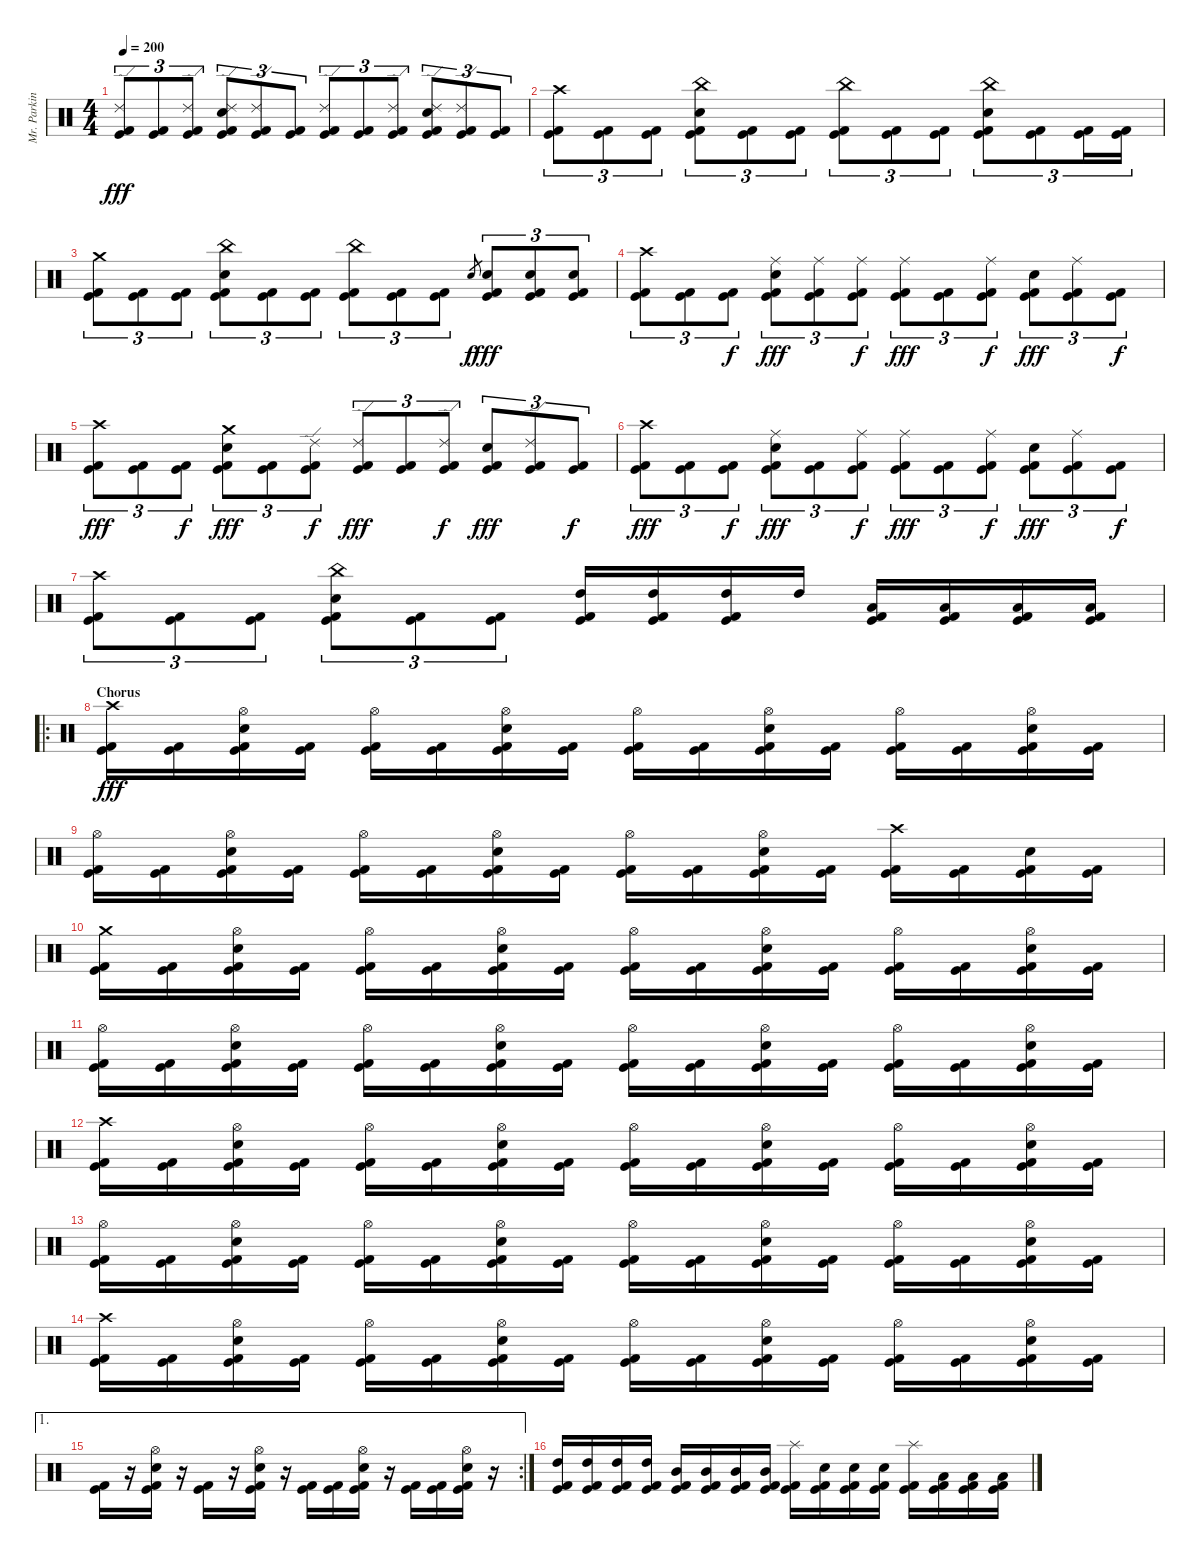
\track ("Mr. Parkinson" "Mr. Parkin") {instrument percussion}
\staff {score}
\articulation defaults
\ts (4 4)
\tempo 200
\clef neutral
\ks c
("Ride (edge) 2" "Kick (hit)" "Kick (hit) 2").8{tu (3 2) dy fff} ("Kick (hit)" "Kick (hit) 2").8{tu (3 2)} ("Ride (edge) 2" "Kick (hit)" "Kick (hit) 2").8{tu (3 2)} ("Ride (edge) 2" "Electric Snare (hit)" "Kick (hit)" "Kick (hit) 2").8{tu (3 2)} ("Ride (edge) 2" "Kick (hit)" "Kick (hit) 2").8{tu (3 2)} ("Kick (hit)" "Kick (hit) 2").8{tu (3 2)} ("Ride (edge) 2" "Kick (hit)" "Kick (hit) 2").8{tu (3 2)} ("Kick (hit)" "Kick (hit) 2").8{tu (3 2)} ("Ride (edge) 2" "Kick (hit)" "Kick (hit) 2").8{tu (3 2)} ("Ride (edge) 2" "Electric Snare (hit)" "Kick (hit)" "Kick (hit) 2").8{tu (3 2)} ("Ride (edge) 2" "Kick (hit)" "Kick (hit) 2").8{tu (3 2)} ("Kick (hit)" "Kick (hit) 2").8{tu (3 2)} |
("Crash high (hit)" "Kick (hit)" "Kick (hit) 2").8{tu (3 2)} ("Kick (hit)" "Kick (hit) 2").8{tu (3 2)} ("Kick (hit)" "Kick (hit) 2").8{tu (3 2)} ("China (hit)" "Electric Snare (hit)" "Kick (hit)" "Kick (hit) 2").8{tu (3 2)} ("Kick (hit)" "Kick (hit) 2").8{tu (3 2)} ("Kick (hit)" "Kick (hit) 2").8{tu (3 2)} ("China (hit)" "Kick (hit)" "Kick (hit) 2").8{tu (3 2)} ("Kick (hit)" "Kick (hit) 2").8{tu (3 2)} ("Kick (hit)" "Kick (hit) 2").8{tu (3 2)} ("China (hit)" "Electric Snare (hit)" "Kick (hit)" "Kick (hit) 2").8{tu (3 2)} ("Kick (hit)" "Kick (hit) 2").8{tu (3 2)} ("Kick (hit)" "Kick (hit) 2").16{tu (3 2)} ("Kick (hit) 2" "Kick (hit)").16{tu (3 2)} |
("Crash medium (hit)" "Kick (hit)" "Kick (hit) 2").8{tu (3 2)} ("Kick (hit)" "Kick (hit) 2").8{tu (3 2)} ("Kick (hit)" "Kick (hit) 2").8{tu (3 2)} ("China (hit)" "Electric Snare (hit)" "Kick (hit)" "Kick (hit) 2").8{tu (3 2)} ("Kick (hit)" "Kick (hit) 2").8{tu (3 2)} ("Kick (hit)" "Kick (hit) 2").8{tu (3 2)} ("China (hit)" "Kick (hit)" "Kick (hit) 2").8{tu (3 2)} ("Kick (hit)" "Kick (hit) 2").8{tu (3 2)} ("Kick (hit)" "Kick (hit) 2").8{tu (3 2)} "Electric Snare (hit)".8{gr dy f} ("Electric Snare (hit)" "Kick (hit)" "Kick (hit) 2").8{tu (3 2) dy fff} ("Electric Snare (hit)" "Kick (hit)" "Kick (hit) 2").8{tu (3 2)} ("Electric Snare (hit)" "Kick (hit)" "Kick (hit) 2").8{tu (3 2)} |
("Crash high (hit)" "Kick (hit)" "Kick (hit) 2").8{tu (3 2)} ("Kick (hit)" "Kick (hit) 2").8{tu (3 2)} ("Kick (hit)" "Kick (hit) 2").8{tu (3 2) dy f} ("Ride (middle)" "Electric Snare (hit)" "Kick (hit)" "Kick (hit) 2").8{tu (3 2) dy fff} ("Ride (middle)" "Kick (hit)" "Kick (hit) 2").8{tu (3 2)} ("Ride (middle)" "Kick (hit)" "Kick (hit) 2").8{tu (3 2) dy f} ("Ride (middle)" "Kick (hit)" "Kick (hit) 2").8{tu (3 2) dy fff} ("Kick (hit)" "Kick (hit) 2").8{tu (3 2)} ("Ride (middle)" "Kick (hit)" "Kick (hit) 2").8{tu (3 2) dy f} ("Electric Snare (hit)" "Kick (hit)" "Kick (hit) 2").8{tu (3 2) dy fff} ("Ride (middle)" "Kick (hit)" "Kick (hit) 2").8{tu (3 2)} ("Kick (hit)" "Kick (hit) 2").8{tu (3 2) dy f} |
("Crash high (hit)" "Kick (hit)" "Kick (hit) 2").8{tu (3 2) dy fff} ("Kick (hit)" "Kick (hit) 2").8{tu (3 2)} ("Kick (hit)" "Kick (hit) 2").8{tu (3 2) dy f} ("Crash medium (hit)" "Electric Snare (hit)" "Kick (hit)" "Kick (hit) 2").8{tu (3 2) dy fff} ("Kick (hit)" "Kick (hit) 2").8{tu (3 2)} ("Ride (edge) 2" "Kick (hit)" "Kick (hit) 2").8{tu (3 2) dy f} ("Ride (edge) 2" "Kick (hit)" "Kick (hit) 2").8{tu (3 2) dy fff} ("Kick (hit)" "Kick (hit) 2").8{tu (3 2)} ("Ride (edge) 2" "Kick (hit)" "Kick (hit) 2").8{tu (3 2) dy f} ("Electric Snare (hit)" "Kick (hit)" "Kick (hit) 2").8{tu (3 2) dy fff} ("Ride (edge) 2" "Kick (hit)" "Kick (hit) 2").8{tu (3 2)} ("Kick (hit)" "Kick (hit) 2").8{tu (3 2) dy f} |
("Crash high (hit)" "Kick (hit)" "Kick (hit) 2").8{tu (3 2) dy fff} ("Kick (hit)" "Kick (hit) 2").8{tu (3 2)} ("Kick (hit)" "Kick (hit) 2").8{tu (3 2) dy f} ("Ride (middle)" "Electric Snare (hit)" "Kick (hit)" "Kick (hit) 2").8{tu (3 2) dy fff} ("Kick (hit)" "Kick (hit) 2").8{tu (3 2)} ("Ride (middle)" "Kick (hit)" "Kick (hit) 2").8{tu (3 2) dy f} ("Ride (middle)" "Kick (hit)" "Kick (hit) 2").8{tu (3 2) dy fff} ("Kick (hit)" "Kick (hit) 2").8{tu (3 2)} ("Ride (middle)" "Kick (hit)" "Kick (hit) 2").8{tu (3 2) dy f} ("Electric Snare (hit)" "Kick (hit)" "Kick (hit) 2").8{tu (3 2) dy fff} ("Ride (middle)" "Kick (hit)" "Kick (hit) 2").8{tu (3 2)} ("Kick (hit)" "Kick (hit) 2").8{tu (3 2) dy f} |
("Crash high (hit)" "Kick (hit)" "Kick (hit) 2").8{tu (3 2)} ("Kick (hit)" "Kick (hit) 2").8{tu (3 2)} ("Kick (hit)" "Kick (hit) 2").8{tu (3 2)} ("China (hit)" "Electric Snare (hit)" "Kick (hit)" "Kick (hit) 2").8{tu (3 2)} ("Kick (hit)" "Kick (hit) 2").8{tu (3 2)} ("Kick (hit)" "Kick (hit) 2").8{tu (3 2)} ("High Tom (hit)" "Kick (hit)" "Kick (hit) 2").16 ("High Tom (hit)" "Kick (hit)" "Kick (hit) 2").16 ("High Tom (hit)" "Kick (hit)" "Kick (hit) 2").16 "High Tom (hit)".16 ("Low Tom (hit)" "Kick (hit)" "Kick (hit) 2").16 ("Low Tom (hit)" "Kick (hit)" "Kick (hit) 2").16 ("Low Tom (hit)" "Kick (hit)" "Kick (hit) 2").16 ("Low Tom (hit)" "Kick (hit)" "Kick (hit) 2").16 |
\ro
\section ("" "Chorus")
("Crash high (hit)" "Kick (hit)" "Kick (hit) 2").16{dy fff} ("Kick (hit)" "Kick (hit) 2").16 ("Hi-Hat (open)" "Electric Snare (hit)" "Kick (hit)" "Kick (hit) 2").16 ("Kick (hit)" "Kick (hit) 2").16 ("Hi-Hat (open)" "Kick (hit)" "Kick (hit) 2").16 ("Kick (hit)" "Kick (hit) 2").16 ("Hi-Hat (open)" "Electric Snare (hit)" "Kick (hit)" "Kick (hit) 2").16 ("Kick (hit)" "Kick (hit) 2").16 ("Hi-Hat (open)" "Kick (hit)" "Kick (hit) 2").16 ("Kick (hit)" "Kick (hit) 2").16 ("Hi-Hat (open)" "Electric Snare (hit)" "Kick (hit)" "Kick (hit) 2").16 ("Kick (hit)" "Kick (hit) 2").16 ("Hi-Hat (open)" "Kick (hit)" "Kick (hit) 2").16 ("Kick (hit)" "Kick (hit) 2").16 ("Hi-Hat (open)" "Electric Snare (hit)" "Kick (hit)" "Kick (hit) 2").16 ("Kick (hit)" "Kick (hit) 2").16 |
("Hi-Hat (open)" "Kick (hit)" "Kick (hit) 2").16 ("Kick (hit)" "Kick (hit) 2").16 ("Hi-Hat (open)" "Electric Snare (hit)" "Kick (hit)" "Kick (hit) 2").16 ("Kick (hit)" "Kick (hit) 2").16 ("Hi-Hat (open)" "Kick (hit)" "Kick (hit) 2").16 ("Kick (hit)" "Kick (hit) 2").16 ("Hi-Hat (open)" "Electric Snare (hit)" "Kick (hit)" "Kick (hit) 2").16 ("Kick (hit)" "Kick (hit) 2").16 ("Hi-Hat (open)" "Kick (hit)" "Kick (hit) 2").16 ("Kick (hit)" "Kick (hit) 2").16 ("Hi-Hat (open)" "Electric Snare (hit)" "Kick (hit)" "Kick (hit) 2").16 ("Kick (hit)" "Kick (hit) 2").16 ("Crash high (hit)" "Kick (hit)" "Kick (hit) 2").16 ("Kick (hit)" "Kick (hit) 2").16 ("Electric Snare (hit)" "Kick (hit)" "Kick (hit) 2").16 ("Kick (hit)" "Kick (hit) 2").16 |
("Crash medium (hit)" "Kick (hit)" "Kick (hit) 2").16 ("Kick (hit)" "Kick (hit) 2").16 ("Hi-Hat (open)" "Electric Snare (hit)" "Kick (hit)" "Kick (hit) 2").16 ("Kick (hit)" "Kick (hit) 2").16 ("Hi-Hat (open)" "Kick (hit)" "Kick (hit) 2").16 ("Kick (hit)" "Kick (hit) 2").16 ("Hi-Hat (open)" "Electric Snare (hit)" "Kick (hit)" "Kick (hit) 2").16 ("Kick (hit)" "Kick (hit) 2").16 ("Hi-Hat (open)" "Kick (hit)" "Kick (hit) 2").16 ("Kick (hit)" "Kick (hit) 2").16 ("Hi-Hat (open)" "Electric Snare (hit)" "Kick (hit)" "Kick (hit) 2").16 ("Kick (hit)" "Kick (hit) 2").16 ("Hi-Hat (open)" "Kick (hit)" "Kick (hit) 2").16 ("Kick (hit)" "Kick (hit) 2").16 ("Hi-Hat (open)" "Electric Snare (hit)" "Kick (hit)" "Kick (hit) 2").16 ("Kick (hit)" "Kick (hit) 2").16 |
("Hi-Hat (open)" "Kick (hit)" "Kick (hit) 2").16 ("Kick (hit)" "Kick (hit) 2").16 ("Hi-Hat (open)" "Electric Snare (hit)" "Kick (hit)" "Kick (hit) 2").16 ("Kick (hit)" "Kick (hit) 2").16 ("Hi-Hat (open)" "Kick (hit)" "Kick (hit) 2").16 ("Kick (hit)" "Kick (hit) 2").16 ("Hi-Hat (open)" "Electric Snare (hit)" "Kick (hit)" "Kick (hit) 2").16 ("Kick (hit)" "Kick (hit) 2").16 ("Hi-Hat (open)" "Kick (hit)" "Kick (hit) 2").16 ("Kick (hit)" "Kick (hit) 2").16 ("Hi-Hat (open)" "Electric Snare (hit)" "Kick (hit)" "Kick (hit) 2").16 ("Kick (hit)" "Kick (hit) 2").16 ("Hi-Hat (open)" "Kick (hit)" "Kick (hit) 2").16 ("Kick (hit)" "Kick (hit) 2").16 ("Hi-Hat (open)" "Electric Snare (hit)" "Kick (hit)" "Kick (hit) 2").16 ("Kick (hit)" "Kick (hit) 2").16 |
("Crash high (hit)" "Kick (hit)" "Kick (hit) 2").16 ("Kick (hit)" "Kick (hit) 2").16 ("Hi-Hat (open)" "Electric Snare (hit)" "Kick (hit)" "Kick (hit) 2").16 ("Kick (hit)" "Kick (hit) 2").16 ("Hi-Hat (open)" "Kick (hit)" "Kick (hit) 2").16 ("Kick (hit)" "Kick (hit) 2").16 ("Hi-Hat (open)" "Electric Snare (hit)" "Kick (hit)" "Kick (hit) 2").16 ("Kick (hit)" "Kick (hit) 2").16 ("Hi-Hat (open)" "Kick (hit)" "Kick (hit) 2").16 ("Kick (hit)" "Kick (hit) 2").16 ("Hi-Hat (open)" "Electric Snare (hit)" "Kick (hit)" "Kick (hit) 2").16 ("Kick (hit)" "Kick (hit) 2").16 ("Hi-Hat (open)" "Kick (hit)" "Kick (hit) 2").16 ("Kick (hit)" "Kick (hit) 2").16 ("Hi-Hat (open)" "Electric Snare (hit)" "Kick (hit)" "Kick (hit) 2").16 ("Kick (hit)" "Kick (hit) 2").16 |
("Hi-Hat (open)" "Kick (hit)" "Kick (hit) 2").16 ("Kick (hit)" "Kick (hit) 2").16 ("Hi-Hat (open)" "Electric Snare (hit)" "Kick (hit)" "Kick (hit) 2").16 ("Kick (hit)" "Kick (hit) 2").16 ("Hi-Hat (open)" "Kick (hit)" "Kick (hit) 2").16 ("Kick (hit)" "Kick (hit) 2").16 ("Hi-Hat (open)" "Electric Snare (hit)" "Kick (hit)" "Kick (hit) 2").16 ("Kick (hit)" "Kick (hit) 2").16 ("Hi-Hat (open)" "Kick (hit)" "Kick (hit) 2").16 ("Kick (hit)" "Kick (hit) 2").16 ("Hi-Hat (open)" "Electric Snare (hit)" "Kick (hit)" "Kick (hit) 2").16 ("Kick (hit)" "Kick (hit) 2").16 ("Hi-Hat (open)" "Kick (hit)" "Kick (hit) 2").16 ("Kick (hit)" "Kick (hit) 2").16 ("Hi-Hat (open)" "Electric Snare (hit)" "Kick (hit)" "Kick (hit) 2").16 ("Kick (hit)" "Kick (hit) 2").16 |
("Crash high (hit)" "Kick (hit)" "Kick (hit) 2").16 ("Kick (hit)" "Kick (hit) 2").16 ("Hi-Hat (open)" "Electric Snare (hit)" "Kick (hit)" "Kick (hit) 2").16 ("Kick (hit)" "Kick (hit) 2").16 ("Hi-Hat (open)" "Kick (hit)" "Kick (hit) 2").16 ("Kick (hit)" "Kick (hit) 2").16 ("Hi-Hat (open)" "Electric Snare (hit)" "Kick (hit)" "Kick (hit) 2").16 ("Kick (hit)" "Kick (hit) 2").16 ("Hi-Hat (open)" "Kick (hit)" "Kick (hit) 2").16 ("Kick (hit)" "Kick (hit) 2").16 ("Hi-Hat (open)" "Electric Snare (hit)" "Kick (hit)" "Kick (hit) 2").16 ("Kick (hit)" "Kick (hit) 2").16 ("Hi-Hat (open)" "Kick (hit)" "Kick (hit) 2").16 ("Kick (hit)" "Kick (hit) 2").16 ("Hi-Hat (open)" "Electric Snare (hit)" "Kick (hit)" "Kick (hit) 2").16 ("Kick (hit)" "Kick (hit) 2").16 |
\ae 1
\rc 2
("Kick (hit)" "Kick (hit) 2").16 r.16 ("Hi-Hat (open)" "Electric Snare (hit)" "Kick (hit)" "Kick (hit) 2").16 r.16 ("Kick (hit)" "Kick (hit) 2").16 r.16 ("Hi-Hat (open)" "Electric Snare (hit)" "Kick (hit)" "Kick (hit) 2").16 r.16 ("Kick (hit)" "Kick (hit) 2").16 ("Kick (hit)" "Kick (hit) 2").16 ("Hi-Hat (open)" "Electric Snare (hit)" "Kick (hit)" "Kick (hit) 2").16 r.16 ("Kick (hit)" "Kick (hit) 2").16 ("Kick (hit)" "Kick (hit) 2").16 ("Hi-Hat (open)" "Electric Snare (hit)" "Kick (hit)" "Kick (hit) 2").16 r.16 |
("High Tom (hit)" "Kick (hit)" "Kick (hit) 2").16 ("High Tom (hit)" "Kick (hit)" "Kick (hit) 2").16 ("High Tom (hit)" "Kick (hit)" "Kick (hit) 2").16 ("High Tom (hit)" "Kick (hit)" "Kick (hit) 2").16 ("Mid Tom (hit)" "Kick (hit)" "Kick (hit) 2").16 ("Mid Tom (hit)" "Kick (hit)" "Kick (hit) 2").16 ("Mid Tom (hit)" "Kick (hit)" "Kick (hit) 2").16 ("Mid Tom (hit)" "Kick (hit)" "Kick (hit) 2").16 ("Splash (hit)" "Kick (hit)" "Kick (hit) 2").16 ("Electric Snare (hit)" "Kick (hit)" "Kick (hit) 2").16 ("Electric Snare (hit)" "Kick (hit)" "Kick (hit) 2").16 ("Electric Snare (hit)" "Kick (hit)" "Kick (hit) 2").16 ("Splash (hit)" "Kick (hit)" "Kick (hit) 2").16 ("Low Tom (hit)" "Kick (hit)" "Kick (hit) 2").16 ("Low Tom (hit)" "Kick (hit)" "Kick (hit) 2").16 ("Low Tom (hit)" "Kick (hit)" "Kick (hit) 2").16
